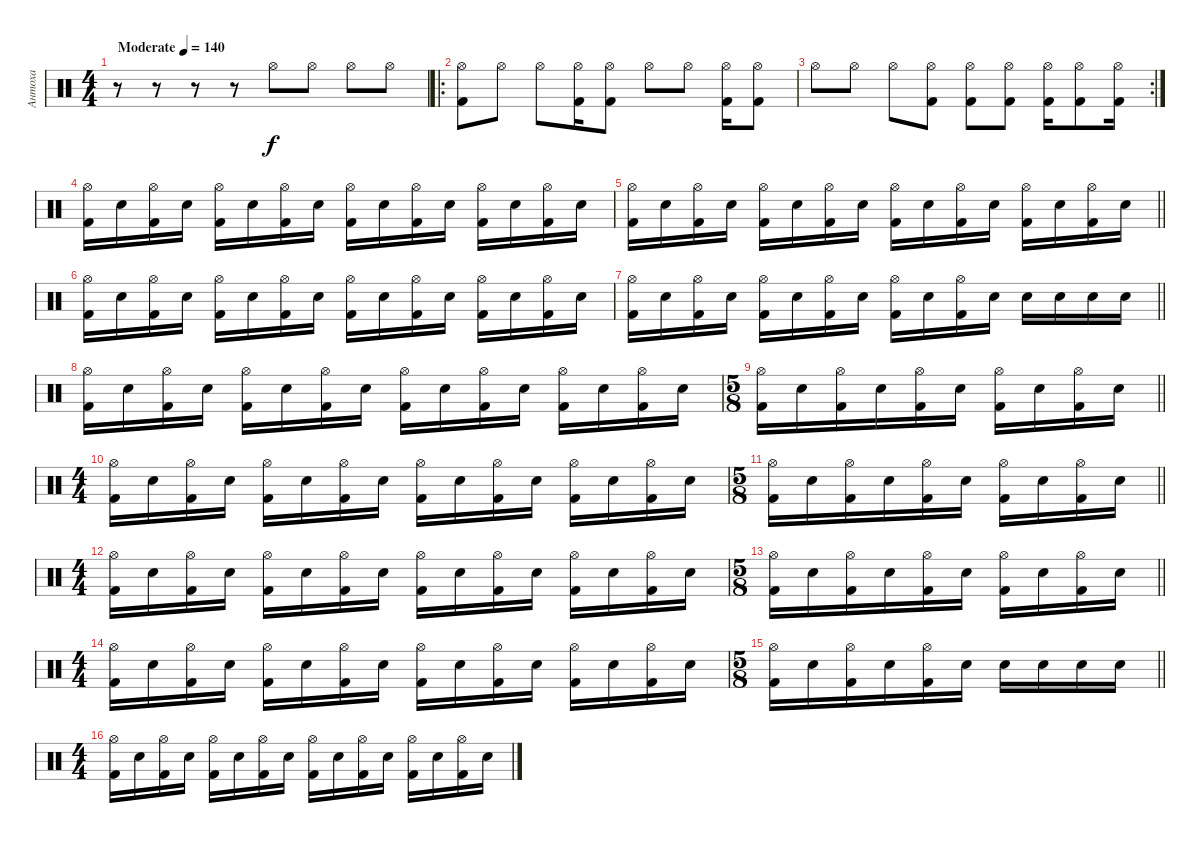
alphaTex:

\track ("Антоха" "Антоха") {instrument percussion}
\staff {score}
\articulation defaults
\ts (4 4)
\tempo (140 "Moderate")
\clef neutral
\ks c
r.8{dy f} r.8 r.8 r.8 "Hi-Hat (open)".8 "Hi-Hat (open)".8 "Hi-Hat (open)".8 "Hi-Hat (open)".8 |
\ro
("Hi-Hat (open)" "Kick (hit) 2").8 "Hi-Hat (open)".8 "Hi-Hat (open)".8 ("Hi-Hat (open)" "Kick (hit) 2").16 ("Hi-Hat (open)" "Kick (hit) 2").8 "Hi-Hat (open)".8 "Hi-Hat (open)".8 ("Hi-Hat (open)" "Kick (hit) 2").16 ("Hi-Hat (open)" "Kick (hit) 2").8 |
\rc 2 "Hi-Hat (open)".8 "Hi-Hat (open)".8 "Hi-Hat (open)".8
("Hi-Hat (open)" "Kick (hit) 2").8 ("Hi-Hat (open)" "Kick (hit) 2").8 ("Hi-Hat (open)" "Kick (hit) 2").8 ("Hi-Hat (open)" "Kick (hit) 2").16 ("Hi-Hat (open)" "Kick (hit) 2").8 ("Hi-Hat (open)" "Kick (hit) 2").16 |
("Hi-Hat (open)" "Kick (hit) 2").16 "Electric Snare (hit)".16 ("Hi-Hat (open)" "Kick (hit) 2").16 "Electric Snare (hit)".16 ("Hi-Hat (open)" "Kick (hit) 2").16 "Electric Snare (hit)".16 ("Hi-Hat (open)" "Kick (hit) 2").16 "Electric Snare (hit)".16 ("Hi-Hat (open)" "Kick (hit) 2").16 "Electric Snare (hit)".16 ("Hi-Hat (open)" "Kick (hit) 2").16 "Electric Snare (hit)".16 ("Hi-Hat (open)" "Kick (hit) 2").16 "Electric Snare (hit)".16 ("Hi-Hat (open)" "Kick (hit) 2").16 "Electric Snare (hit)".16 |
\barLineRight lightlight
("Hi-Hat (open)" "Kick (hit) 2").16 "Electric Snare (hit)".16 ("Hi-Hat (open)" "Kick (hit) 2").16 "Electric Snare (hit)".16 ("Hi-Hat (open)" "Kick (hit) 2").16 "Electric Snare (hit)".16 ("Hi-Hat (open)" "Kick (hit) 2").16 "Electric Snare (hit)".16 ("Hi-Hat (open)" "Kick (hit) 2").16 "Electric Snare (hit)".16 ("Hi-Hat (open)" "Kick (hit) 2").16 "Electric Snare (hit)".16 ("Hi-Hat (open)" "Kick (hit) 2").16 "Electric Snare (hit)".16 ("Hi-Hat (open)" "Kick (hit) 2").16 "Electric Snare (hit)".16 |
("Hi-Hat (open)" "Kick (hit) 2").16 "Electric Snare (hit)".16 ("Hi-Hat (open)" "Kick (hit) 2").16 "Electric Snare (hit)".16 ("Hi-Hat (open)" "Kick (hit) 2").16 "Electric Snare (hit)".16 ("Hi-Hat (open)" "Kick (hit) 2").16 "Electric Snare (hit)".16 ("Hi-Hat (open)" "Kick (hit) 2").16 "Electric Snare (hit)".16 ("Hi-Hat (open)" "Kick (hit) 2").16 "Electric Snare (hit)".16 ("Hi-Hat (open)" "Kick (hit) 2").16 "Electric Snare (hit)".16 ("Hi-Hat (open)" "Kick (hit) 2").16 "Electric Snare (hit)".16 |
\barLineRight lightlight
("Hi-Hat (open)" "Kick (hit) 2").16 "Electric Snare (hit)".16 ("Hi-Hat (open)" "Kick (hit) 2").16 "Electric Snare (hit)".16 ("Hi-Hat (open)" "Kick (hit) 2").16 "Electric Snare (hit)".16 ("Hi-Hat (open)" "Kick (hit) 2").16 "Electric Snare (hit)".16 ("Hi-Hat (open)" "Kick (hit) 2").16 "Electric Snare (hit)".16 ("Hi-Hat (open)" "Kick (hit) 2").16 "Electric Snare (hit)".16 "Electric Snare (hit)".16 "Electric Snare (hit)".16 "Electric Snare (hit)".16 "Electric Snare (hit)".16 |
("Hi-Hat (open)" "Kick (hit) 2").16 "Electric Snare (hit)".16 ("Hi-Hat (open)" "Kick (hit) 2").16 "Electric Snare (hit)".16 ("Hi-Hat (open)" "Kick (hit) 2").16 "Electric Snare (hit)".16 ("Hi-Hat (open)" "Kick (hit) 2").16 "Electric Snare (hit)".16 ("Hi-Hat (open)" "Kick (hit) 2").16 "Electric Snare (hit)".16 ("Hi-Hat (open)" "Kick (hit) 2").16 "Electric Snare (hit)".16 ("Hi-Hat (open)" "Kick (hit) 2").16 "Electric Snare (hit)".16 ("Hi-Hat (open)" "Kick (hit) 2").16 "Electric Snare (hit)".16 |
\ts (5 8)
\barLineRight lightlight
("Hi-Hat (open)" "Kick (hit) 2").16 "Electric Snare (hit)".16 ("Hi-Hat (open)" "Kick (hit) 2").16 "Electric Snare (hit)".16 ("Hi-Hat (open)" "Kick (hit) 2").16 "Electric Snare (hit)".16 ("Hi-Hat (open)" "Kick (hit) 2").16 "Electric Snare (hit)".16 ("Hi-Hat (open)" "Kick (hit) 2").16 "Electric Snare (hit)".16 |
\ts (4 4)
("Hi-Hat (open)" "Kick (hit) 2").16 "Electric Snare (hit)".16 ("Hi-Hat (open)" "Kick (hit) 2").16 "Electric Snare (hit)".16 ("Hi-Hat (open)" "Kick (hit) 2").16 "Electric Snare (hit)".16 ("Hi-Hat (open)" "Kick (hit) 2").16 "Electric Snare (hit)".16 ("Hi-Hat (open)" "Kick (hit) 2").16 "Electric Snare (hit)".16 ("Hi-Hat (open)" "Kick (hit) 2").16 "Electric Snare (hit)".16 ("Hi-Hat (open)" "Kick (hit) 2").16 "Electric Snare (hit)".16 ("Hi-Hat (open)" "Kick (hit) 2").16 "Electric Snare (hit)".16 |
\ts (5 8)
\barLineRight lightlight
("Hi-Hat (open)" "Kick (hit) 2").16 "Electric Snare (hit)".16 ("Hi-Hat (open)" "Kick (hit) 2").16 "Electric Snare (hit)".16 ("Hi-Hat (open)" "Kick (hit) 2").16 "Electric Snare (hit)".16 ("Hi-Hat (open)" "Kick (hit) 2").16 "Electric Snare (hit)".16 ("Hi-Hat (open)" "Kick (hit) 2").16 "Electric Snare (hit)".16 |
\ts (4 4)
("Hi-Hat (open)" "Kick (hit) 2").16 "Electric Snare (hit)".16 ("Hi-Hat (open)" "Kick (hit) 2").16 "Electric Snare (hit)".16 ("Hi-Hat (open)" "Kick (hit) 2").16 "Electric Snare (hit)".16 ("Hi-Hat (open)" "Kick (hit) 2").16 "Electric Snare (hit)".16 ("Hi-Hat (open)" "Kick (hit) 2").16 "Electric Snare (hit)".16 ("Hi-Hat (open)" "Kick (hit) 2").16 "Electric Snare (hit)".16 ("Hi-Hat (open)" "Kick (hit) 2").16 "Electric Snare (hit)".16 ("Hi-Hat (open)" "Kick (hit) 2").16 "Electric Snare (hit)".16 |
\ts (5 8)
\barLineRight lightlight
("Hi-Hat (open)" "Kick (hit) 2").16 "Electric Snare (hit)".16 ("Hi-Hat (open)" "Kick (hit) 2").16 "Electric Snare (hit)".16 ("Hi-Hat (open)" "Kick (hit) 2").16 "Electric Snare (hit)".16 ("Hi-Hat (open)" "Kick (hit) 2").16 "Electric Snare (hit)".16 ("Hi-Hat (open)" "Kick (hit) 2").16 "Electric Snare (hit)".16 |
\ts (4 4)
("Hi-Hat (open)" "Kick (hit) 2").16 "Electric Snare (hit)".16 ("Hi-Hat (open)" "Kick (hit) 2").16 "Electric Snare (hit)".16 ("Hi-Hat (open)" "Kick (hit) 2").16 "Electric Snare (hit)".16 ("Hi-Hat (open)" "Kick (hit) 2").16 "Electric Snare (hit)".16 ("Hi-Hat (open)" "Kick (hit) 2").16 "Electric Snare (hit)".16 ("Hi-Hat (open)" "Kick (hit) 2").16 "Electric Snare (hit)".16 ("Hi-Hat (open)" "Kick (hit) 2").16 "Electric Snare (hit)".16 ("Hi-Hat (open)" "Kick (hit) 2").16 "Electric Snare (hit)".16 |
\ts (5 8)
\barLineRight lightlight
("Hi-Hat (open)" "Kick (hit) 2").16 "Electric Snare (hit)".16 ("Hi-Hat (open)" "Kick (hit) 2").16 "Electric Snare (hit)".16 ("Hi-Hat (open)" "Kick (hit) 2").16 "Electric Snare (hit)".16 "Electric Snare (hit)".16 "Electric Snare (hit)".16 "Electric Snare (hit)".16 "Electric Snare (hit)".16 |
\ts (4 4)
("Hi-Hat (open)" "Kick (hit) 2").16 "Electric Snare (hit)".16 ("Hi-Hat (open)" "Kick (hit) 2").16 "Electric Snare (hit)".16 ("Hi-Hat (open)" "Kick (hit) 2").16 "Electric Snare (hit)".16 ("Hi-Hat (open)" "Kick (hit) 2").16 "Electric Snare (hit)".16 ("Hi-Hat (open)" "Kick (hit) 2").16 "Electric Snare (hit)".16 ("Hi-Hat (open)" "Kick (hit) 2").16 "Electric Snare (hit)".16 ("Hi-Hat (open)" "Kick (hit) 2").16 "Electric Snare (hit)".16 ("Hi-Hat (open)" "Kick (hit) 2").16 "Electric Snare (hit)".16
